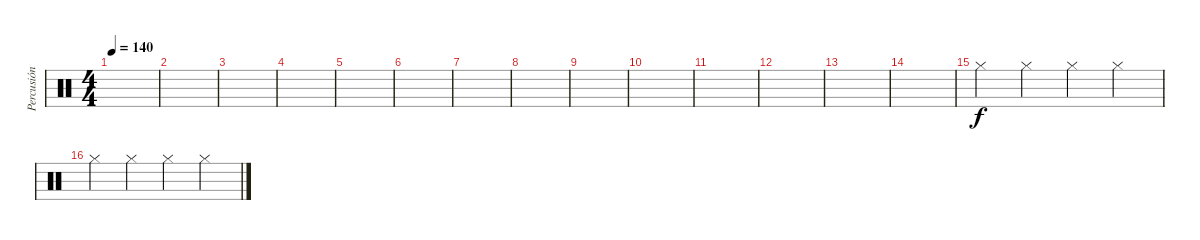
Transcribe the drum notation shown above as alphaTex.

\track ("Percusión" "Percusión") {instrument percussion}
\staff {score}
\articulation defaults
\ts (4 4)
\tempo 140
\clef neutral
\ks c
|
|
|
|
|
|
|
|
|
|
|
|
|
|
"Hi-Hat (closed)".4 "Hi-Hat (closed)".4 "Hi-Hat (closed)".4 "Hi-Hat (closed)".4 |
"Hi-Hat (closed)".4 "Hi-Hat (closed)".4 "Hi-Hat (closed)".4 "Hi-Hat (closed)".4
